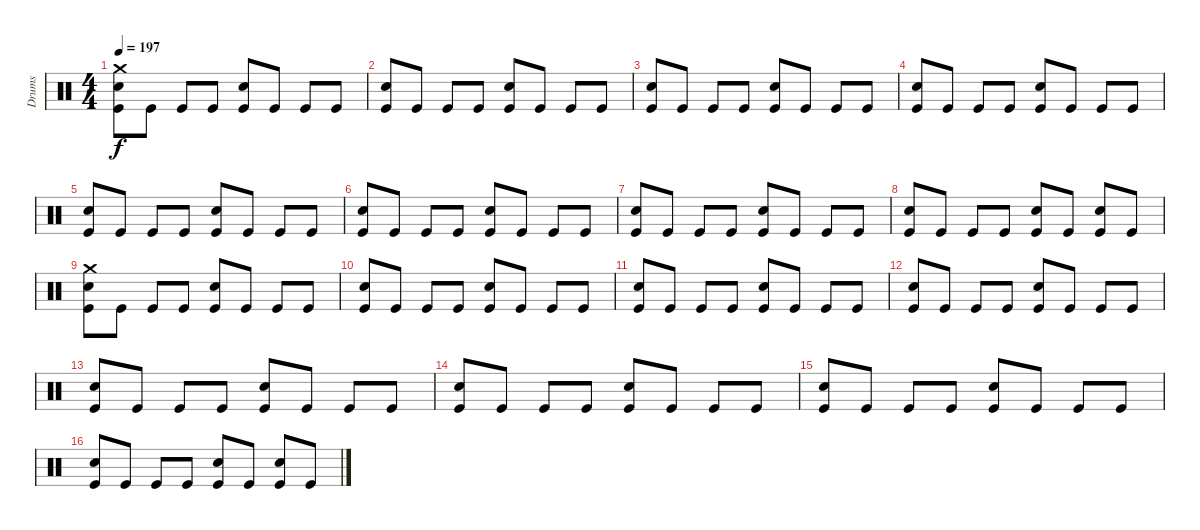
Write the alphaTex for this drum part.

\track ("Drums" "Drums") {instrument percussion}
\staff {score}
\articulation defaults
\ts (4 4)
\tempo 197
\clef neutral
\ks c
("Crash medium (hit)" "Snare (hit) 2" "Kick (hit)").8{dy f} "Kick (hit)".8 "Kick (hit)".8 "Kick (hit)".8 ("Snare (hit) 2" "Kick (hit)").8 "Kick (hit)".8 "Kick (hit)".8 "Kick (hit)".8 |
("Snare (hit) 2" "Kick (hit)").8 "Kick (hit)".8 "Kick (hit)".8 "Kick (hit)".8 ("Snare (hit) 2" "Kick (hit)").8 "Kick (hit)".8 "Kick (hit)".8 "Kick (hit)".8 |
("Snare (hit) 2" "Kick (hit)").8 "Kick (hit)".8 "Kick (hit)".8 "Kick (hit)".8 ("Snare (hit) 2" "Kick (hit)").8 "Kick (hit)".8 "Kick (hit)".8 "Kick (hit)".8 |
("Snare (hit) 2" "Kick (hit)").8 "Kick (hit)".8 "Kick (hit)".8 "Kick (hit)".8 ("Snare (hit) 2" "Kick (hit)").8 "Kick (hit)".8 "Kick (hit)".8 "Kick (hit)".8 |
("Snare (hit) 2" "Kick (hit)").8 "Kick (hit)".8 "Kick (hit)".8 "Kick (hit)".8 ("Snare (hit) 2" "Kick (hit)").8 "Kick (hit)".8 "Kick (hit)".8 "Kick (hit)".8 |
("Snare (hit) 2" "Kick (hit)").8 "Kick (hit)".8 "Kick (hit)".8 "Kick (hit)".8 ("Snare (hit) 2" "Kick (hit)").8 "Kick (hit)".8 "Kick (hit)".8 "Kick (hit)".8 |
("Snare (hit) 2" "Kick (hit)").8 "Kick (hit)".8 "Kick (hit)".8 "Kick (hit)".8 ("Snare (hit) 2" "Kick (hit)").8 "Kick (hit)".8 "Kick (hit)".8 "Kick (hit)".8 |
("Snare (hit) 2" "Kick (hit)").8 "Kick (hit)".8 "Kick (hit)".8 "Kick (hit)".8 ("Snare (hit) 2" "Kick (hit)").8 "Kick (hit)".8 ("Snare (hit) 2" "Kick (hit)").8 "Kick (hit)".8 |
("Crash medium (hit)" "Snare (hit) 2" "Kick (hit)").8 "Kick (hit)".8 "Kick (hit)".8 "Kick (hit)".8 ("Snare (hit) 2" "Kick (hit)").8 "Kick (hit)".8 "Kick (hit)".8 "Kick (hit)".8 |
("Snare (hit) 2" "Kick (hit)").8 "Kick (hit)".8 "Kick (hit)".8 "Kick (hit)".8 ("Snare (hit) 2" "Kick (hit)").8 "Kick (hit)".8 "Kick (hit)".8 "Kick (hit)".8 |
("Snare (hit) 2" "Kick (hit)").8 "Kick (hit)".8 "Kick (hit)".8 "Kick (hit)".8 ("Snare (hit) 2" "Kick (hit)").8 "Kick (hit)".8 "Kick (hit)".8 "Kick (hit)".8 |
("Snare (hit) 2" "Kick (hit)").8 "Kick (hit)".8 "Kick (hit)".8 "Kick (hit)".8 ("Snare (hit) 2" "Kick (hit)").8 "Kick (hit)".8 "Kick (hit)".8 "Kick (hit)".8 |
("Snare (hit) 2" "Kick (hit)").8 "Kick (hit)".8 "Kick (hit)".8 "Kick (hit)".8 ("Snare (hit) 2" "Kick (hit)").8 "Kick (hit)".8 "Kick (hit)".8 "Kick (hit)".8 |
("Snare (hit) 2" "Kick (hit)").8 "Kick (hit)".8 "Kick (hit)".8 "Kick (hit)".8 ("Snare (hit) 2" "Kick (hit)").8 "Kick (hit)".8 "Kick (hit)".8 "Kick (hit)".8 |
("Snare (hit) 2" "Kick (hit)").8 "Kick (hit)".8 "Kick (hit)".8 "Kick (hit)".8 ("Snare (hit) 2" "Kick (hit)").8 "Kick (hit)".8 "Kick (hit)".8 "Kick (hit)".8 |
("Snare (hit) 2" "Kick (hit)").8 "Kick (hit)".8 "Kick (hit)".8 "Kick (hit)".8 ("Snare (hit) 2" "Kick (hit)").8 "Kick (hit)".8 ("Snare (hit) 2" "Kick (hit)").8 "Kick (hit)".8
